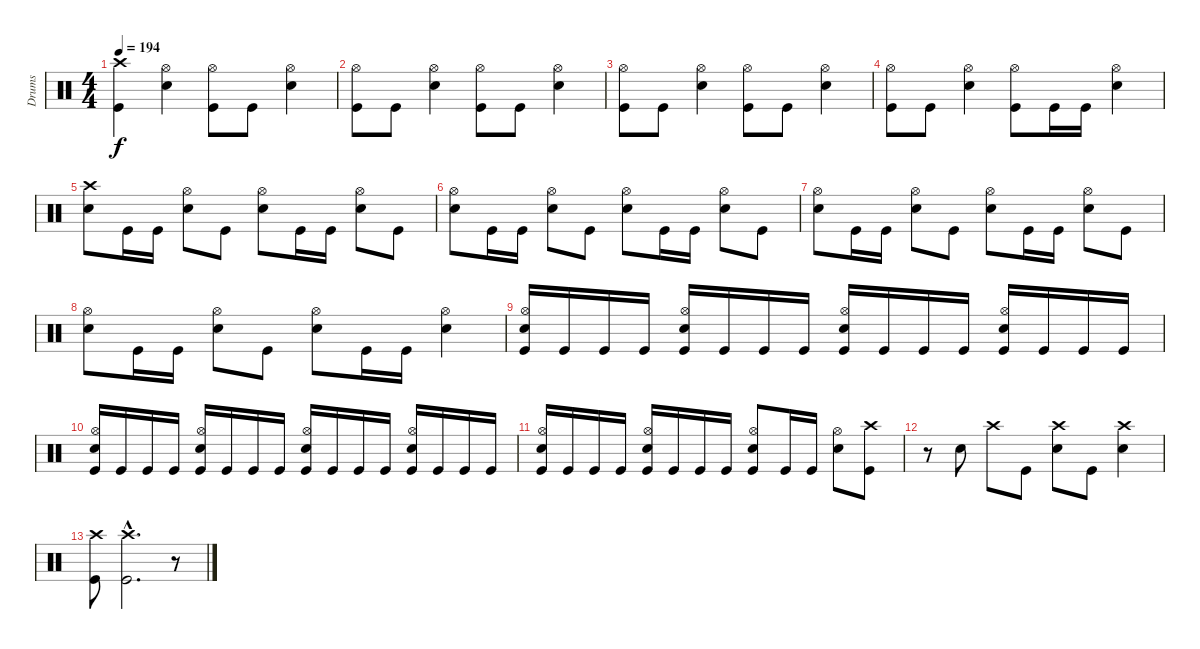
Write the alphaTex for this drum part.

\track ("Drums" "Drums") {instrument percussion}
\staff {score}
\articulation defaults
\ts (4 4)
\tempo 194
\clef neutral
\ks c
("Crash high (hit)" "Kick (hit)").4{dy f} ("Hi-Hat (open)" "Electric Snare (hit)").4 ("Hi-Hat (open)" "Kick (hit)").8 "Kick (hit)".8 ("Hi-Hat (open)" "Electric Snare (hit)").4 |
("Hi-Hat (open)" "Kick (hit)").8 "Kick (hit)".8 ("Hi-Hat (open)" "Electric Snare (hit)").4 ("Hi-Hat (open)" "Kick (hit)").8 "Kick (hit)".8 ("Hi-Hat (open)" "Electric Snare (hit)").4 |
("Hi-Hat (open)" "Kick (hit)").8 "Kick (hit)".8 ("Hi-Hat (open)" "Electric Snare (hit)").4 ("Hi-Hat (open)" "Kick (hit)").8 "Kick (hit)".8 ("Hi-Hat (open)" "Electric Snare (hit)").4 |
("Hi-Hat (open)" "Kick (hit)").8 "Kick (hit)".8 ("Hi-Hat (open)" "Electric Snare (hit)").4 ("Hi-Hat (open)" "Kick (hit)").8 "Kick (hit)".16 "Kick (hit)".16 ("Hi-Hat (open)" "Electric Snare (hit)").4 |
("Crash high (hit)" "Electric Snare (hit)").8 "Kick (hit)".16 "Kick (hit)".16 ("Hi-Hat (open)" "Electric Snare (hit)").8 "Kick (hit)".8 ("Hi-Hat (open)" "Electric Snare (hit)").8 "Kick (hit)".16 "Kick (hit)".16 ("Hi-Hat (open)" "Electric Snare (hit)").8 "Kick (hit)".8 |
("Hi-Hat (open)" "Electric Snare (hit)").8 "Kick (hit)".16 "Kick (hit)".16 ("Hi-Hat (open)" "Electric Snare (hit)").8 "Kick (hit)".8 ("Hi-Hat (open)" "Electric Snare (hit)").8 "Kick (hit)".16 "Kick (hit)".16 ("Hi-Hat (open)" "Electric Snare (hit)").8 "Kick (hit)".8 |
("Hi-Hat (open)" "Electric Snare (hit)").8 "Kick (hit)".16 "Kick (hit)".16 ("Hi-Hat (open)" "Electric Snare (hit)").8 "Kick (hit)".8 ("Hi-Hat (open)" "Electric Snare (hit)").8 "Kick (hit)".16 "Kick (hit)".16 ("Hi-Hat (open)" "Electric Snare (hit)").8 "Kick (hit)".8 |
("Hi-Hat (open)" "Electric Snare (hit)").8 "Kick (hit)".16 "Kick (hit)".16 ("Hi-Hat (open)" "Electric Snare (hit)").8 "Kick (hit)".8 ("Hi-Hat (open)" "Electric Snare (hit)").8 "Kick (hit)".16 "Kick (hit)".16 ("Hi-Hat (open)" "Electric Snare (hit)").4 |
("Hi-Hat (open)" "Electric Snare (hit)" "Kick (hit)").16 "Kick (hit)".16 "Kick (hit)".16 "Kick (hit)".16 ("Hi-Hat (open)" "Electric Snare (hit)" "Kick (hit)").16 "Kick (hit)".16 "Kick (hit)".16 "Kick (hit)".16 ("Hi-Hat (open)" "Electric Snare (hit)" "Kick (hit)").16 "Kick (hit)".16 "Kick (hit)".16 "Kick (hit)".16 ("Hi-Hat (open)" "Electric Snare (hit)" "Kick (hit)").16 "Kick (hit)".16 "Kick (hit)".16 "Kick (hit)".16 |
("Hi-Hat (open)" "Electric Snare (hit)" "Kick (hit)").16 "Kick (hit)".16 "Kick (hit)".16 "Kick (hit)".16 ("Hi-Hat (open)" "Electric Snare (hit)" "Kick (hit)").16 "Kick (hit)".16 "Kick (hit)".16 "Kick (hit)".16 ("Hi-Hat (open)" "Electric Snare (hit)" "Kick (hit)").16 "Kick (hit)".16 "Kick (hit)".16 "Kick (hit)".16 ("Hi-Hat (open)" "Electric Snare (hit)" "Kick (hit)").16 "Kick (hit)".16 "Kick (hit)".16 "Kick (hit)".16 |
("Hi-Hat (open)" "Electric Snare (hit)" "Kick (hit)").16 "Kick (hit)".16 "Kick (hit)".16 "Kick (hit)".16 ("Hi-Hat (open)" "Electric Snare (hit)" "Kick (hit)").16 "Kick (hit)".16 "Kick (hit)".16 "Kick (hit)".16 ("Hi-Hat (open)" "Electric Snare (hit)" "Kick (hit)").8 "Kick (hit)".16 "Kick (hit)".16 ("Hi-Hat (open)" "Electric Snare (hit)").8 ("Crash high (hit)" "Kick (hit)").8 |
r.8 "Electric Snare (hit)".8 "Crash high (hit)".8 "Kick (hit)".8 ("Crash high (hit)" "Electric Snare (hit)").8 "Kick (hit)".8 ("Crash high (hit)" "Electric Snare (hit)").4 |
("Crash high (hit)" "Kick (hit)").8 ("Crash high (hit)"{hac} "Kick (hit)"{hac}).2{d} r.8
